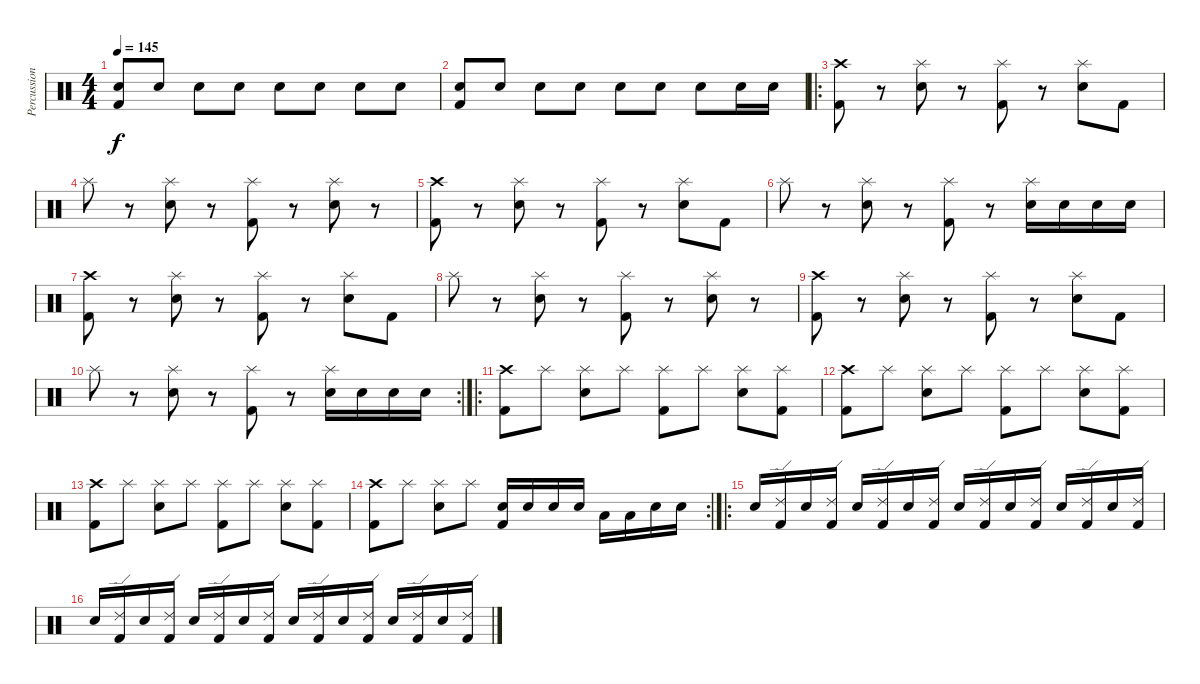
\track ("Percussion" "Percussion") {instrument percussion}
\staff {score}
\articulation defaults
\ts (4 4)
\tempo 145
\clef neutral
\ks c
("Electric Snare (hit)" "Kick (hit) 2").8{dy f} "Electric Snare (hit)".8 "Electric Snare (hit)".8 "Electric Snare (hit)".8 "Electric Snare (hit)".8 "Electric Snare (hit)".8 "Electric Snare (hit)".8 "Electric Snare (hit)".8 |
("Electric Snare (hit)" "Kick (hit) 2").8 "Electric Snare (hit)".8 "Electric Snare (hit)".8 "Electric Snare (hit)".8 "Electric Snare (hit)".8 "Electric Snare (hit)".8 "Electric Snare (hit)".8 "Electric Snare (hit)".16 "Electric Snare (hit)".16 |
\ro
("Crash high (hit)" "Kick (hit) 2").8 r.8 ("Splash (hit)" "Electric Snare (hit)").8 r.8 ("Splash (hit)" "Kick (hit) 2").8 r.8 ("Splash (hit)" "Electric Snare (hit)").8 "Kick (hit) 2".8 |
"Splash (hit)".8 r.8 ("Splash (hit)" "Electric Snare (hit)").8 r.8 ("Splash (hit)" "Kick (hit) 2").8 r.8 ("Splash (hit)" "Electric Snare (hit)").8 r.8 |
("Crash high (hit)" "Kick (hit) 2").8 r.8 ("Splash (hit)" "Electric Snare (hit)").8 r.8 ("Splash (hit)" "Kick (hit) 2").8 r.8 ("Splash (hit)" "Electric Snare (hit)").8 "Kick (hit) 2".8 |
"Splash (hit)".8 r.8 ("Splash (hit)" "Electric Snare (hit)").8 r.8 ("Splash (hit)" "Kick (hit) 2").8 r.8 ("Splash (hit)" "Electric Snare (hit)").16 "Electric Snare (hit)".16 "Electric Snare (hit)".16 "Electric Snare (hit)".16 |
("Crash high (hit)" "Kick (hit) 2").8 r.8 ("Splash (hit)" "Electric Snare (hit)").8 r.8 ("Splash (hit)" "Kick (hit) 2").8 r.8 ("Splash (hit)" "Electric Snare (hit)").8 "Kick (hit) 2".8 |
"Splash (hit)".8 r.8 ("Splash (hit)" "Electric Snare (hit)").8 r.8 ("Splash (hit)" "Kick (hit) 2").8 r.8 ("Splash (hit)" "Electric Snare (hit)").8 r.8 |
("Crash high (hit)" "Kick (hit) 2").8 r.8 ("Splash (hit)" "Electric Snare (hit)").8 r.8 ("Splash (hit)" "Kick (hit) 2").8 r.8 ("Splash (hit)" "Electric Snare (hit)").8 "Kick (hit) 2".8 |
\rc 2 "Splash (hit)".8
r.8 ("Splash (hit)" "Electric Snare (hit)").8 r.8 ("Splash (hit)" "Kick (hit) 2").8 r.8 ("Splash (hit)" "Electric Snare (hit)").16 "Electric Snare (hit)".16 "Electric Snare (hit)".16 "Electric Snare (hit)".16 |
\ro
("Crash high (hit)" "Kick (hit) 2").8 "Splash (hit)".8 ("Splash (hit)" "Electric Snare (hit)").8 "Splash (hit)".8 ("Splash (hit)" "Kick (hit) 2").8 "Splash (hit)".8 ("Splash (hit)" "Electric Snare (hit)").8 ("Splash (hit)" "Kick (hit) 2").8 |
("Crash high (hit)" "Kick (hit) 2").8 "Splash (hit)".8 ("Splash (hit)" "Electric Snare (hit)").8 "Splash (hit)".8 ("Splash (hit)" "Kick (hit) 2").8 "Splash (hit)".8 ("Splash (hit)" "Electric Snare (hit)").8 ("Splash (hit)" "Kick (hit) 2").8 |
("Crash high (hit)" "Kick (hit) 2").8 "Splash (hit)".8 ("Splash (hit)" "Electric Snare (hit)").8 "Splash (hit)".8 ("Splash (hit)" "Kick (hit) 2").8 "Splash (hit)".8 ("Splash (hit)" "Electric Snare (hit)").8 ("Splash (hit)" "Kick (hit) 2").8 |
\rc 2
("Crash high (hit)" "Kick (hit) 2").8 "Splash (hit)".8 ("Splash (hit)" "Electric Snare (hit)").8 "Splash (hit)".8 ("Electric Snare (hit)" "Kick (hit) 2").16 "Electric Snare (hit)".16 "Electric Snare (hit)".16 "Electric Snare (hit)".16 "Low Tom (hit)".16 "Low Tom (hit)".16 "Electric Snare (hit)".16 "Electric Snare (hit)".16 |
\ro "Electric Snare (hit)".16
("Ride (edge) 2" "Kick (hit) 2").16 "Electric Snare (hit)".16 ("Ride (edge) 2" "Kick (hit) 2").16 "Electric Snare (hit)".16 ("Ride (edge) 2" "Kick (hit) 2").16 "Electric Snare (hit)".16 ("Ride (edge) 2" "Kick (hit) 2").16 "Electric Snare (hit)".16 ("Ride (edge) 2" "Kick (hit) 2").16 "Electric Snare (hit)".16 ("Ride (edge) 2" "Kick (hit) 2").16 "Electric Snare (hit)".16 ("Ride (edge) 2" "Kick (hit) 2").16 "Electric Snare (hit)".16 ("Ride (edge) 2" "Kick (hit) 2").16 |
"Electric Snare (hit)".16 ("Ride (edge) 2" "Kick (hit) 2").16 "Electric Snare (hit)".16 ("Ride (edge) 2" "Kick (hit) 2").16 "Electric Snare (hit)".16 ("Ride (edge) 2" "Kick (hit) 2").16 "Electric Snare (hit)".16 ("Ride (edge) 2" "Kick (hit) 2").16 "Electric Snare (hit)".16 ("Ride (edge) 2" "Kick (hit) 2").16 "Electric Snare (hit)".16 ("Ride (edge) 2" "Kick (hit) 2").16 "Electric Snare (hit)".16 ("Ride (edge) 2" "Kick (hit) 2").16 "Electric Snare (hit)".16 ("Ride (edge) 2" "Kick (hit) 2").16
